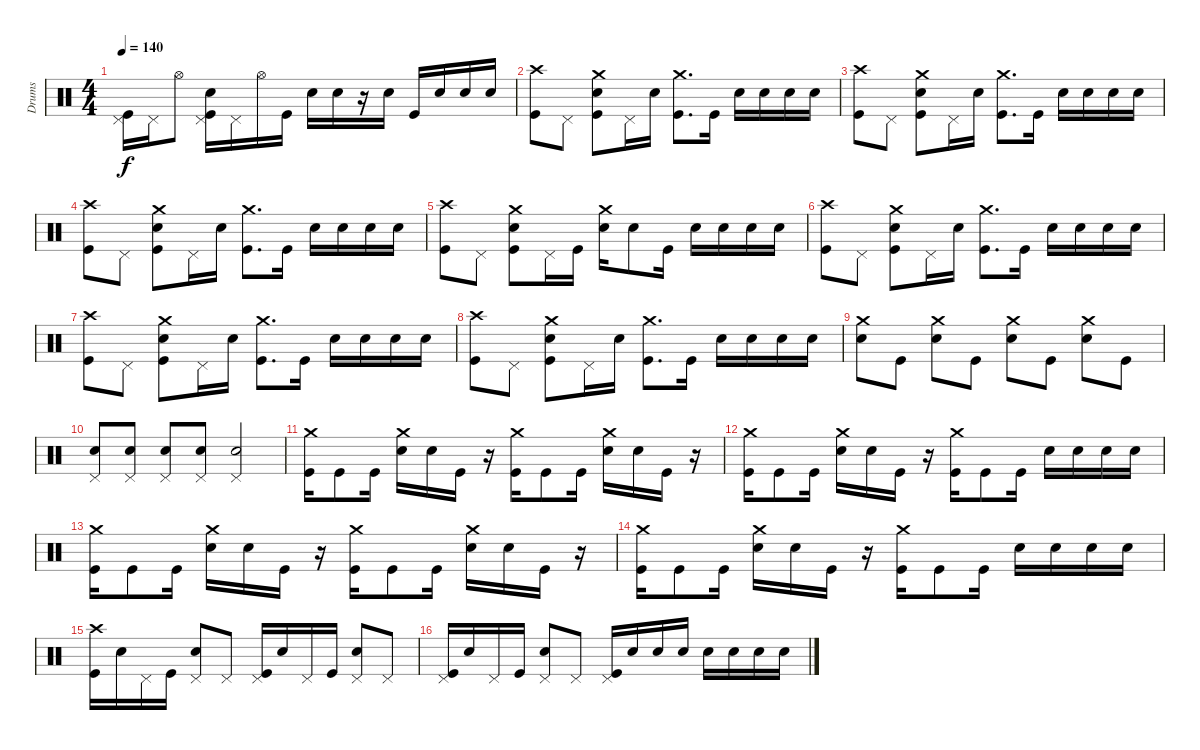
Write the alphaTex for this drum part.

\track ("Drums" "Drums") {instrument percussion}
\staff {score}
\articulation defaults
\ts (4 4)
\tempo 140
\clef neutral
\ks c
("Kick (hit)" "Pedal Hi-Hat (hit)").16{dy f} "Pedal Hi-Hat (hit)".16 "Hi-Hat (open)".8 ("Kick (hit)" "Snare (hit) 2" "Pedal Hi-Hat (hit)").16 "Pedal Hi-Hat (hit)".16 "Hi-Hat (open)".16 "Kick (hit)".16 "Snare (hit) 2".16 "Snare (hit) 2".16 r.16 "Snare (hit) 2".16 "Kick (hit)".16 "Snare (hit) 2".16 "Snare (hit) 2".16 "Snare (hit) 2".16 |
("Kick (hit)" "Crash high (hit)").8 "Pedal Hi-Hat (hit)".8 ("Kick (hit)" "Snare (hit) 2" "Crash medium (hit)").8 "Pedal Hi-Hat (hit)".16 "Snare (hit) 2".16 ("Kick (hit)" "Crash medium (hit)").8{d} "Kick (hit)".16 "Snare (hit) 2".16 "Snare (hit) 2".16 "Snare (hit) 2".16 "Snare (hit) 2".16 |
("Kick (hit)" "Crash high (hit)").8 "Pedal Hi-Hat (hit)".8 ("Kick (hit)" "Snare (hit) 2" "Crash medium (hit)").8 "Pedal Hi-Hat (hit)".16 "Snare (hit) 2".16 ("Kick (hit)" "Crash medium (hit)").8{d} "Kick (hit)".16 "Snare (hit) 2".16 "Snare (hit) 2".16 "Snare (hit) 2".16 "Snare (hit) 2".16 |
("Kick (hit)" "Crash high (hit)").8 "Pedal Hi-Hat (hit)".8 ("Kick (hit)" "Snare (hit) 2" "Crash medium (hit)").8 "Pedal Hi-Hat (hit)".16 "Snare (hit) 2".16 ("Kick (hit)" "Crash medium (hit)").8{d} "Kick (hit)".16 "Snare (hit) 2".16 "Snare (hit) 2".16 "Snare (hit) 2".16 "Snare (hit) 2".16 |
("Kick (hit)" "Crash high (hit)").8 "Pedal Hi-Hat (hit)".8 ("Kick (hit)" "Snare (hit) 2" "Crash medium (hit)").8 "Pedal Hi-Hat (hit)".16 "Kick (hit)".16 ("Snare (hit) 2" "Crash medium (hit)").16 "Snare (hit) 2".8 "Kick (hit)".16 "Snare (hit) 2".16 "Snare (hit) 2".16 "Snare (hit) 2".16 "Snare (hit) 2".16 |
("Kick (hit)" "Crash high (hit)").8 "Pedal Hi-Hat (hit)".8 ("Kick (hit)" "Snare (hit) 2" "Crash medium (hit)").8 "Pedal Hi-Hat (hit)".16 "Snare (hit) 2".16 ("Kick (hit)" "Crash medium (hit)").8{d} "Kick (hit)".16 "Snare (hit) 2".16 "Snare (hit) 2".16 "Snare (hit) 2".16 "Snare (hit) 2".16 |
("Kick (hit)" "Crash high (hit)").8 "Pedal Hi-Hat (hit)".8 ("Kick (hit)" "Snare (hit) 2" "Crash medium (hit)").8 "Pedal Hi-Hat (hit)".16 "Snare (hit) 2".16 ("Kick (hit)" "Crash medium (hit)").8{d} "Kick (hit)".16 "Snare (hit) 2".16 "Snare (hit) 2".16 "Snare (hit) 2".16 "Snare (hit) 2".16 |
("Kick (hit)" "Crash high (hit)").8 "Pedal Hi-Hat (hit)".8 ("Kick (hit)" "Snare (hit) 2" "Crash medium (hit)").8 "Pedal Hi-Hat (hit)".16 "Snare (hit) 2".16 ("Kick (hit)" "Crash medium (hit)").8{d} "Kick (hit)".16 "Snare (hit) 2".16 "Snare (hit) 2".16 "Snare (hit) 2".16 "Snare (hit) 2".16 |
("Snare (hit) 2" "Crash medium (hit)").8 "Kick (hit)".8 ("Snare (hit) 2" "Crash medium (hit)").8 "Kick (hit)".8 ("Snare (hit) 2" "Crash medium (hit)").8 "Kick (hit)".8 ("Snare (hit) 2" "Crash medium (hit)").8 "Kick (hit)".8 |
("Snare (hit) 2" "Pedal Hi-Hat (hit)").8 ("Snare (hit) 2" "Pedal Hi-Hat (hit)").8 ("Snare (hit) 2" "Pedal Hi-Hat (hit)").8 ("Snare (hit) 2" "Pedal Hi-Hat (hit)").8 ("Snare (hit) 2" "Pedal Hi-Hat (hit)").2 |
("Kick (hit)" "Crash medium (hit)").16 "Kick (hit)".8 "Kick (hit)".16 ("Snare (hit) 2" "Crash medium (hit)").16 "Snare (hit) 2".16 "Kick (hit)".16 r.16 ("Kick (hit)" "Crash medium (hit)").16 "Kick (hit)".8 "Kick (hit)".16 ("Snare (hit) 2" "Crash medium (hit)").16 "Snare (hit) 2".16 "Kick (hit)".16 r.16 |
("Kick (hit)" "Crash medium (hit)").16 "Kick (hit)".8 "Kick (hit)".16 ("Snare (hit) 2" "Crash medium (hit)").16 "Snare (hit) 2".16 "Kick (hit)".16 r.16 ("Kick (hit)" "Crash medium (hit)").16 "Kick (hit)".8 "Kick (hit)".16 "Snare (hit) 2".16 "Snare (hit) 2".16 "Snare (hit) 2".16 "Snare (hit) 2".16 |
("Kick (hit)" "Crash medium (hit)").16 "Kick (hit)".8 "Kick (hit)".16 ("Snare (hit) 2" "Crash medium (hit)").16 "Snare (hit) 2".16 "Kick (hit)".16 r.16 ("Kick (hit)" "Crash medium (hit)").16 "Kick (hit)".8 "Kick (hit)".16 ("Snare (hit) 2" "Crash medium (hit)").16 "Snare (hit) 2".16 "Kick (hit)".16 r.16 |
("Kick (hit)" "Crash medium (hit)").16 "Kick (hit)".8 "Kick (hit)".16 ("Snare (hit) 2" "Crash medium (hit)").16 "Snare (hit) 2".16 "Kick (hit)".16 r.16 ("Kick (hit)" "Crash medium (hit)").16 "Kick (hit)".8 "Kick (hit)".16 "Snare (hit) 2".16 "Snare (hit) 2".16 "Snare (hit) 2".16 "Snare (hit) 2".16 |
("Kick (hit)" "Crash high (hit)").16 "Snare (hit) 2".16 "Pedal Hi-Hat (hit)".16 "Kick (hit)".16 ("Snare (hit) 2" "Pedal Hi-Hat (hit)").8 "Pedal Hi-Hat (hit)".8 ("Kick (hit)" "Pedal Hi-Hat (hit)").16 "Snare (hit) 2".16 "Pedal Hi-Hat (hit)".16 "Kick (hit)".16 ("Snare (hit) 2" "Pedal Hi-Hat (hit)").8 "Pedal Hi-Hat (hit)".8 |
("Kick (hit)" "Pedal Hi-Hat (hit)").16 "Snare (hit) 2".16 "Pedal Hi-Hat (hit)".16 "Kick (hit)".16 ("Snare (hit) 2" "Pedal Hi-Hat (hit)").8 "Pedal Hi-Hat (hit)".8 ("Kick (hit)" "Pedal Hi-Hat (hit)").16 "Snare (hit) 2".16 "Snare (hit) 2".16 "Snare (hit) 2".16 "Snare (hit) 2".16 "Snare (hit) 2".16 "Snare (hit) 2".16 "Snare (hit) 2".16
